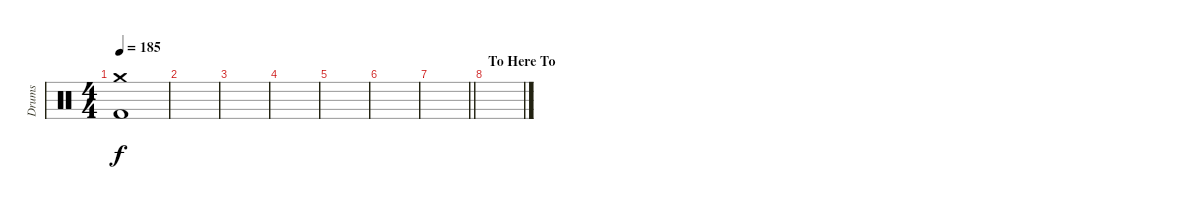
\track ("Drums" "Drums") {solo instrument percussion}
\staff {score}
\articulation defaults
\ts (4 4)
\tempo 185
\clef neutral
\ks c
("Crash medium (hit)" "Kick (hit) 2").1{dy f} |
|
|
|
|
|
\barLineRight lightlight
|
\section ("" "To Here To")
